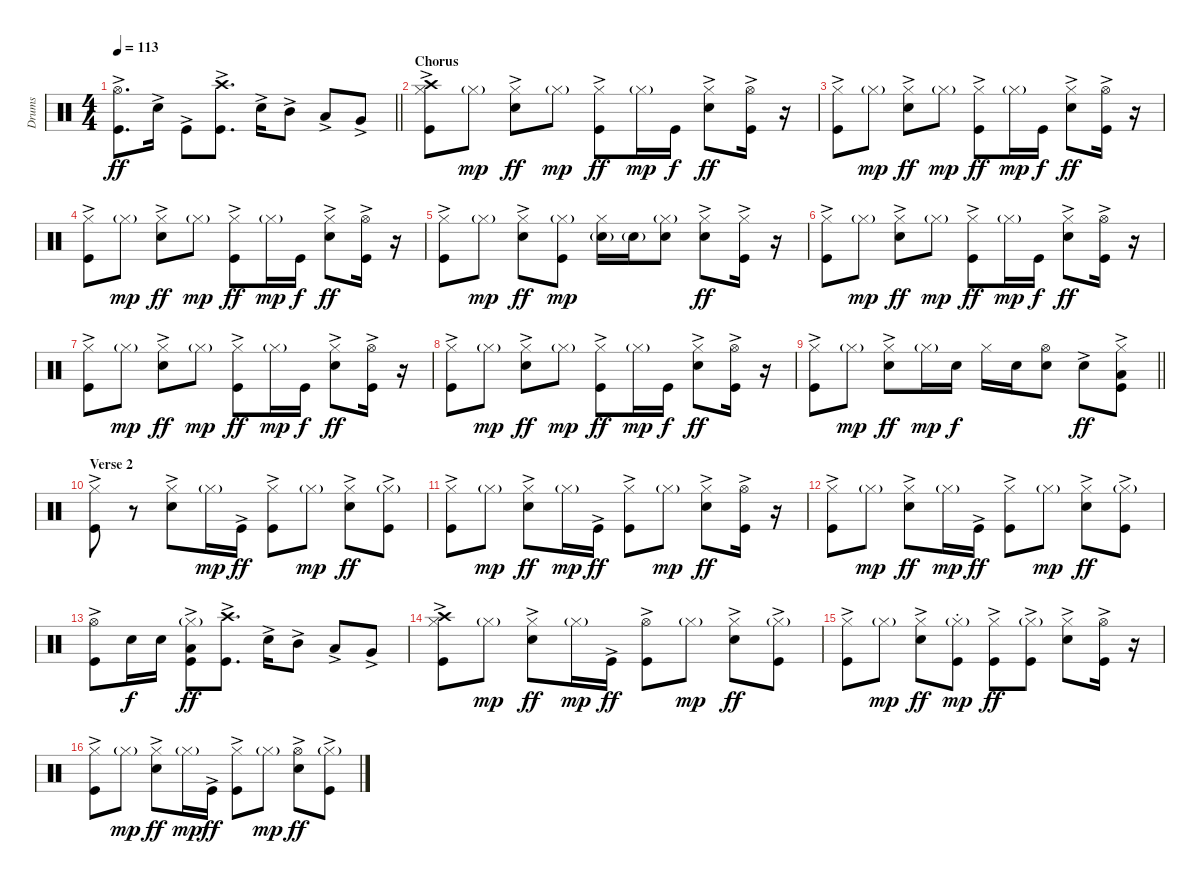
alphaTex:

\track ("Drums" "Drums") {instrument percussion}
\staff {score}
\articulation defaults
\ts (4 4)
\tempo 113
\clef neutral
\barLineRight lightlight
\ks c
("Hi-Hat (open)" "Kick (hit)"{ac}).8{d dy ff} "Snare (hit) 2"{ac}.16 "Kick (hit)"{ac}.8 ("Crash high (hit)" "Kick (hit)"{ac}).8{d} "Snare (hit) 2"{ac}.16 "Mid Tom (hit)"{ac}.8 "Low Tom (hit)"{ac}.8 "Very Low Tom (hit)"{ac}.8 |
\section ("" "Chorus")
("Crash high (hit)" "Hi-Hat (closed)" "Kick (hit)"{ac}).8 "Hi-Hat (closed)"{g}.8{dy mp} ("Hi-Hat (closed)" "Snare (hit) 2"{ac}).8{dy ff} "Hi-Hat (closed)"{g}.8{dy mp} ("Hi-Hat (closed)" "Kick (hit)"{ac}).8{dy ff} "Hi-Hat (closed)"{g}.16{dy mp} "Kick (hit)".16{dy f} ("Hi-Hat (closed)" "Snare (hit) 2"{ac}).8{dy ff} ("Hi-Hat (open)" "Kick (hit)"{ac}).16 r.16 |
("Hi-Hat (closed)" "Kick (hit)"{ac}).8 "Hi-Hat (closed)"{g}.8{dy mp} ("Hi-Hat (closed)" "Snare (hit) 2"{ac}).8{dy ff} "Hi-Hat (closed)"{g}.8{dy mp} ("Hi-Hat (closed)" "Kick (hit)"{ac}).8{dy ff} "Hi-Hat (closed)"{g}.16{dy mp} "Kick (hit)".16{dy f} ("Hi-Hat (closed)" "Snare (hit) 2"{ac}).8{dy ff} ("Hi-Hat (open)" "Kick (hit)"{ac}).16 r.16 |
("Hi-Hat (closed)" "Kick (hit)"{ac}).8 "Hi-Hat (closed)"{g}.8{dy mp} ("Hi-Hat (closed)" "Snare (hit) 2"{ac}).8{dy ff} "Hi-Hat (closed)"{g}.8{dy mp} ("Hi-Hat (closed)" "Kick (hit)"{ac}).8{dy ff} "Hi-Hat (closed)"{g}.16{dy mp} "Kick (hit)".16{dy f} ("Hi-Hat (closed)" "Snare (hit) 2"{ac}).8{dy ff} ("Hi-Hat (open)" "Kick (hit)"{ac}).16 r.16 |
("Hi-Hat (closed)" "Kick (hit)"{ac}).8 "Hi-Hat (closed)"{g}.8{dy mp} ("Hi-Hat (closed)" "Snare (hit) 2"{ac}).8{dy ff} ("Hi-Hat (closed)"{g} "Kick (hit)").8{dy mp} ("Hi-Hat (closed)" "Snare (hit) 2"{g}).16 "Snare (hit) 2"{g}.16 ("Hi-Hat (closed)"{g} "Snare (hit) 2").8 ("Hi-Hat (closed)" "Snare (hit) 2"{ac}).8{dy ff} ("Hi-Hat (closed)" "Kick (hit)"{ac}).16 r.16 |
("Hi-Hat (closed)" "Kick (hit)"{ac}).8 "Hi-Hat (closed)"{g}.8{dy mp} ("Hi-Hat (closed)" "Snare (hit) 2"{ac}).8{dy ff} "Hi-Hat (closed)"{g}.8{dy mp} ("Hi-Hat (closed)" "Kick (hit)"{ac}).8{dy ff} "Hi-Hat (closed)"{g}.16{dy mp} "Kick (hit)".16{dy f} ("Hi-Hat (closed)" "Snare (hit) 2"{ac}).8{dy ff} ("Hi-Hat (open)" "Kick (hit)"{ac}).16 r.16 |
("Hi-Hat (closed)" "Kick (hit)"{ac}).8 "Hi-Hat (closed)"{g}.8{dy mp} ("Hi-Hat (closed)" "Snare (hit) 2"{ac}).8{dy ff} "Hi-Hat (closed)"{g}.8{dy mp} ("Hi-Hat (closed)" "Kick (hit)"{ac}).8{dy ff} "Hi-Hat (closed)"{g}.16{dy mp} "Kick (hit)".16{dy f} ("Hi-Hat (closed)" "Snare (hit) 2"{ac}).8{dy ff} ("Hi-Hat (open)" "Kick (hit)"{ac}).16 r.16 |
("Hi-Hat (closed)" "Kick (hit)"{ac}).8 "Hi-Hat (closed)"{g}.8{dy mp} ("Hi-Hat (closed)" "Snare (hit) 2"{ac}).8{dy ff} "Hi-Hat (closed)"{g}.8{dy mp} ("Hi-Hat (closed)" "Kick (hit)"{ac}).8{dy ff} "Hi-Hat (closed)"{g}.16{dy mp} "Kick (hit)".16{dy f} ("Hi-Hat (closed)" "Snare (hit) 2"{ac}).8{dy ff} ("Hi-Hat (open)" "Kick (hit)"{ac}).16 r.16 |
\barLineRight lightlight
("Hi-Hat (closed)" "Kick (hit)"{ac}).8 "Hi-Hat (closed)"{g}.8{dy mp} ("Hi-Hat (closed)" "Snare (hit) 2"{ac}).8{dy ff} "Hi-Hat (closed)"{g}.16{dy mp} "Snare (hit) 2".16{dy f} "Hi-Hat (closed)".16 "Snare (hit) 2".16 ("Hi-Hat (open)" "Snare (hit) 2").8 "Snare (hit) 2"{ac}.8{dy ff} ("Hi-Hat (closed)" "Low Tom (hit)" "Kick (hit)"{ac}).8 |
\section ("" "Verse 2")
("Hi-Hat (closed)" "Kick (hit)"{ac}).8 r.8 ("Hi-Hat (closed)" "Snare (hit) 2"{ac}).8 "Hi-Hat (closed)"{g}.16{dy mp} "Kick (hit)"{ac}.16{dy ff} ("Hi-Hat (closed)" "Kick (hit)"{ac}).8 "Hi-Hat (closed)"{g}.8{dy mp} ("Hi-Hat (closed)" "Snare (hit) 2"{ac}).8{dy ff} ("Hi-Hat (closed)"{g} "Kick (hit)"{ac}).8 |
("Hi-Hat (closed)" "Kick (hit)"{ac}).8 "Hi-Hat (closed)"{g}.8{dy mp} ("Hi-Hat (closed)" "Snare (hit) 2"{ac}).8{dy ff} "Hi-Hat (closed)"{g}.16{dy mp} "Kick (hit)"{ac}.16{dy ff} ("Hi-Hat (closed)" "Kick (hit)"{ac}).8 "Hi-Hat (closed)"{g}.8{dy mp} ("Hi-Hat (closed)" "Snare (hit) 2"{ac}).8{dy ff} ("Hi-Hat (open)" "Kick (hit)"{ac}).16 r.16 |
("Hi-Hat (closed)" "Kick (hit)"{ac}).8 "Hi-Hat (closed)"{g}.8{dy mp} ("Hi-Hat (closed)" "Snare (hit) 2"{ac}).8{dy ff} "Hi-Hat (closed)"{g}.16{dy mp} "Kick (hit)"{ac}.16{dy ff} ("Hi-Hat (closed)" "Kick (hit)"{ac}).8 "Hi-Hat (closed)"{g}.8{dy mp} ("Hi-Hat (closed)" "Snare (hit) 2"{ac}).8{dy ff} ("Hi-Hat (closed)"{g} "Kick (hit)"{ac}).8 |
("Hi-Hat (open)" "Kick (hit)"{ac}).8 "Snare (hit) 2".16{dy f} "Snare (hit) 2".16 ("Hi-Hat (closed)"{g} "Low Tom (hit)" "Kick (hit)"{ac}).8{dy ff} ("Crash high (hit)" "Kick (hit)"{ac}).8{d} "Snare (hit) 2"{ac}.16 "Mid Tom (hit)"{ac}.8 "Low Tom (hit)"{ac}.8 "Very Low Tom (hit)"{ac}.8 |
("Crash high (hit)" "Hi-Hat (closed)" "Kick (hit)"{ac}).8 "Hi-Hat (closed)"{g}.8{dy mp} ("Hi-Hat (closed)" "Snare (hit) 2"{ac}).8{dy ff} "Hi-Hat (closed)"{g}.16{dy mp} "Kick (hit)"{ac}.16{dy ff} ("Hi-Hat (open)" "Kick (hit)"{ac}).8 "Hi-Hat (closed)"{g}.8{dy mp} ("Hi-Hat (closed)" "Snare (hit) 2"{ac}).8{dy ff} ("Hi-Hat (closed)"{g} "Kick (hit)"{ac}).8 |
("Hi-Hat (closed)" "Kick (hit)"{ac}).8 "Hi-Hat (closed)"{g}.8{dy mp} ("Hi-Hat (closed)" "Snare (hit) 2"{ac}).8{dy ff} ("Hi-Hat (closed)"{g} "Kick (hit)"{st}).8{dy mp} ("Hi-Hat (closed)" "Kick (hit)"{ac}).8{dy ff} ("Hi-Hat (closed)"{g} "Kick (hit)"{ac}).8 ("Hi-Hat (closed)" "Snare (hit) 2"{ac}).8 ("Hi-Hat (open)" "Kick (hit)"{ac}).16 r.16 |
("Hi-Hat (closed)" "Kick (hit)"{ac}).8 "Hi-Hat (closed)"{g}.8{dy mp} ("Hi-Hat (closed)" "Snare (hit) 2"{ac}).8{dy ff} "Hi-Hat (closed)"{g}.16{dy mp} "Kick (hit)"{ac}.16{dy ff} ("Hi-Hat (closed)" "Kick (hit)"{ac}).8 "Hi-Hat (closed)"{g}.8{dy mp} ("Hi-Hat (open)" "Snare (hit) 2"{ac}).8{dy ff} ("Hi-Hat (closed)"{g} "Kick (hit)"{ac}).8
